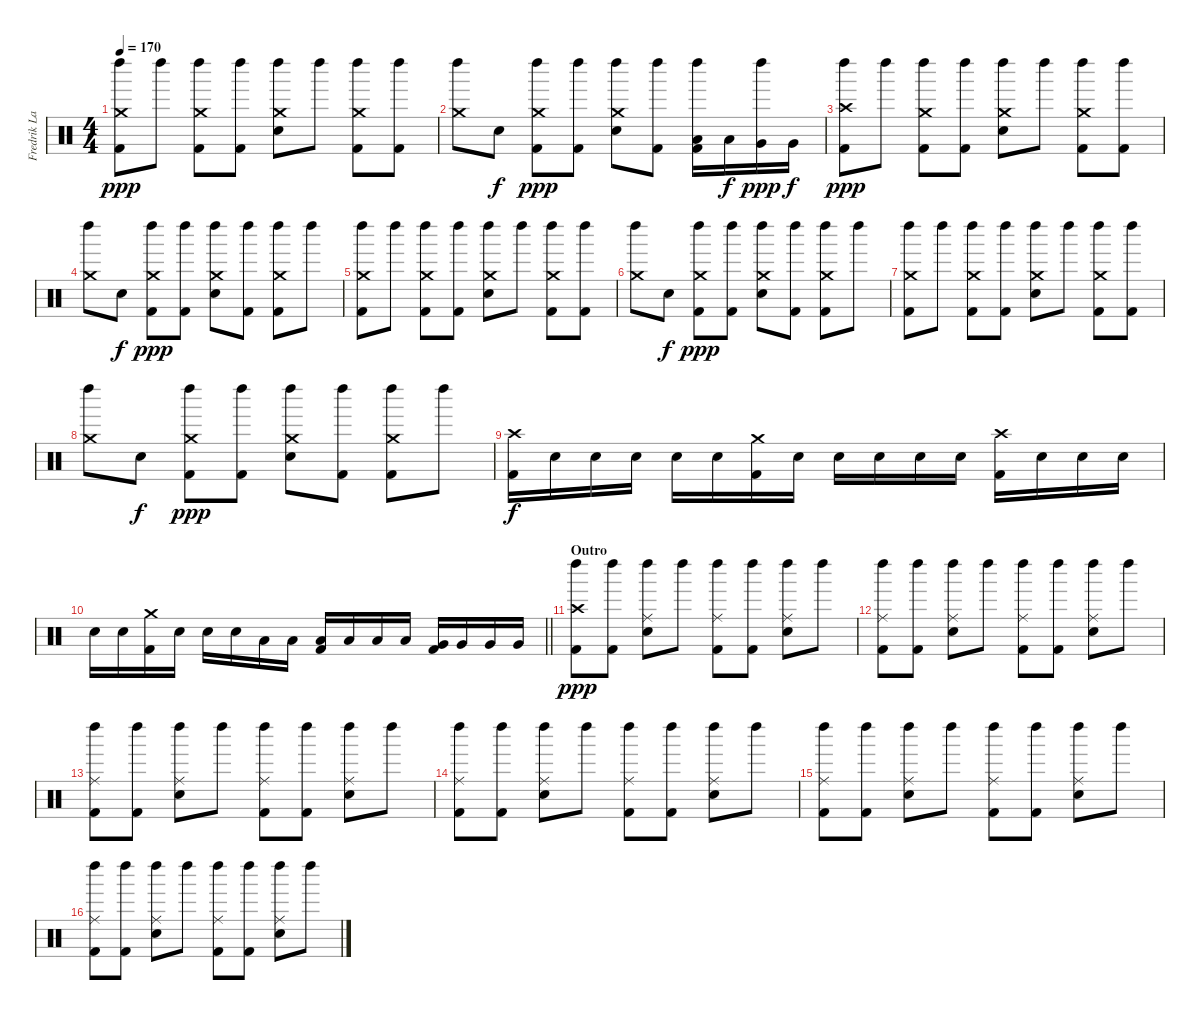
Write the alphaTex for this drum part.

\track ("Fredrik Larzon - Percussion" "Fredrik La") {instrument percussion}
\staff {score}
\articulation defaults
\ts (4 4)
\tempo 170
\clef neutral
\ks c
("Crash medium (hit)" "Left Maraca (hit)" "Kick (hit) 2").8{dy ppp} "Left Maraca (hit)".8 ("Crash medium (hit)" "Left Maraca (hit)" "Kick (hit) 2").8 ("Left Maraca (hit)" "Kick (hit) 2").8 ("Crash medium (hit)" "Left Maraca (hit)" "Electric Snare (hit)").8 "Left Maraca (hit)".8 ("Crash medium (hit)" "Left Maraca (hit)" "Kick (hit) 2").8 ("Left Maraca (hit)" "Kick (hit) 2").8 |
("Crash medium (hit)" "Left Maraca (hit)").8 "Electric Snare (hit)".8{dy f} ("Crash medium (hit)" "Left Maraca (hit)" "Kick (hit) 2").8{dy ppp} ("Left Maraca (hit)" "Kick (hit) 2").8 ("Crash medium (hit)" "Left Maraca (hit)" "Electric Snare (hit)").8 ("Left Maraca (hit)" "Kick (hit) 2").8 ("Left Maraca (hit)" "Low Tom (hit)" "Kick (hit) 2").16 "Low Tom (hit)".16{dy f} ("Left Maraca (hit)" "Very Low Tom (hit)").16{dy ppp} "Very Low Tom (hit)".16{dy f} |
("Crash high (hit)" "Left Maraca (hit)" "Kick (hit) 2").8{dy ppp} "Left Maraca (hit)".8 ("Crash medium (hit)" "Left Maraca (hit)" "Kick (hit) 2").8 ("Left Maraca (hit)" "Kick (hit) 2").8 ("Crash medium (hit)" "Left Maraca (hit)" "Electric Snare (hit)").8 "Left Maraca (hit)".8 ("Crash medium (hit)" "Left Maraca (hit)" "Kick (hit) 2").8 ("Left Maraca (hit)" "Kick (hit) 2").8 |
("Crash medium (hit)" "Left Maraca (hit)").8 "Electric Snare (hit)".8{dy f} ("Crash medium (hit)" "Left Maraca (hit)" "Kick (hit) 2").8{dy ppp} ("Left Maraca (hit)" "Kick (hit) 2").8 ("Crash medium (hit)" "Left Maraca (hit)" "Electric Snare (hit)").8 ("Left Maraca (hit)" "Kick (hit) 2").8 ("Crash medium (hit)" "Left Maraca (hit)" "Kick (hit) 2").8 "Left Maraca (hit)".8 |
("Crash medium (hit)" "Left Maraca (hit)" "Kick (hit) 2").8 "Left Maraca (hit)".8 ("Crash medium (hit)" "Left Maraca (hit)" "Kick (hit) 2").8 ("Left Maraca (hit)" "Kick (hit) 2").8 ("Crash medium (hit)" "Left Maraca (hit)" "Electric Snare (hit)").8 "Left Maraca (hit)".8 ("Crash medium (hit)" "Left Maraca (hit)" "Kick (hit) 2").8 ("Left Maraca (hit)" "Kick (hit) 2").8 |
("Crash medium (hit)" "Left Maraca (hit)").8 "Electric Snare (hit)".8{dy f} ("Crash medium (hit)" "Left Maraca (hit)" "Kick (hit) 2").8{dy ppp} ("Left Maraca (hit)" "Kick (hit) 2").8 ("Crash medium (hit)" "Left Maraca (hit)" "Electric Snare (hit)").8 ("Left Maraca (hit)" "Kick (hit) 2").8 ("Crash medium (hit)" "Left Maraca (hit)" "Kick (hit) 2").8 "Left Maraca (hit)".8 |
("Crash medium (hit)" "Left Maraca (hit)" "Kick (hit) 2").8 "Left Maraca (hit)".8 ("Crash medium (hit)" "Left Maraca (hit)" "Kick (hit) 2").8 ("Left Maraca (hit)" "Kick (hit) 2").8 ("Crash medium (hit)" "Left Maraca (hit)" "Electric Snare (hit)").8 "Left Maraca (hit)".8 ("Crash medium (hit)" "Left Maraca (hit)" "Kick (hit) 2").8 ("Left Maraca (hit)" "Kick (hit) 2").8 |
("Crash medium (hit)" "Left Maraca (hit)").8 "Electric Snare (hit)".8{dy f} ("Crash medium (hit)" "Left Maraca (hit)" "Kick (hit) 2").8{dy ppp} ("Left Maraca (hit)" "Kick (hit) 2").8 ("Crash medium (hit)" "Left Maraca (hit)" "Electric Snare (hit)").8 ("Left Maraca (hit)" "Kick (hit) 2").8 ("Crash medium (hit)" "Left Maraca (hit)" "Kick (hit) 2").8 "Left Maraca (hit)".8 |
("Crash high (hit)" "Kick (hit) 2").16{dy f} "Electric Snare (hit)".16 "Electric Snare (hit)".16 "Electric Snare (hit)".16 "Electric Snare (hit)".16 "Electric Snare (hit)".16 ("Crash medium (hit)" "Kick (hit) 2").16 "Electric Snare (hit)".16 "Electric Snare (hit)".16 "Electric Snare (hit)".16 "Electric Snare (hit)".16 "Electric Snare (hit)".16 ("Crash high (hit)" "Kick (hit) 2").16 "Electric Snare (hit)".16 "Electric Snare (hit)".16 "Electric Snare (hit)".16 |
\barLineRight lightlight "Electric Snare (hit)".16 "Electric Snare (hit)".16
("Crash medium (hit)" "Kick (hit) 2").16 "Electric Snare (hit)".16 "Electric Snare (hit)".16 "Electric Snare (hit)".16 "Low Tom (hit)".16 "Low Tom (hit)".16 ("Low Tom (hit)" "Kick (hit) 2").16 "Low Tom (hit)".16 "Low Tom (hit)".16 "Low Tom (hit)".16 ("Very Low Tom (hit)" "Kick (hit) 2").16 "Very Low Tom (hit)".16 "Very Low Tom (hit)".16 "Very Low Tom (hit)".16 |
\section ("" "Outro")
("Crash high (hit)" "Left Maraca (hit)" "Kick (hit) 2").8{dy ppp} ("Left Maraca (hit)" "Kick (hit) 2").8 ("Ride (middle)" "Left Maraca (hit)" "Electric Snare (hit)").8 "Left Maraca (hit)".8 ("Ride (middle)" "Left Maraca (hit)" "Kick (hit) 2").8 ("Left Maraca (hit)" "Kick (hit) 2").8 ("Ride (middle)" "Left Maraca (hit)" "Electric Snare (hit)").8 "Left Maraca (hit)".8 |
("Ride (middle)" "Left Maraca (hit)" "Kick (hit) 2").8 ("Left Maraca (hit)" "Kick (hit) 2").8 ("Ride (middle)" "Left Maraca (hit)" "Electric Snare (hit)").8 "Left Maraca (hit)".8 ("Ride (middle)" "Left Maraca (hit)" "Kick (hit) 2").8 ("Left Maraca (hit)" "Kick (hit) 2").8 ("Ride (middle)" "Left Maraca (hit)" "Electric Snare (hit)").8 "Left Maraca (hit)".8 |
("Ride (middle)" "Left Maraca (hit)" "Kick (hit) 2").8 ("Left Maraca (hit)" "Kick (hit) 2").8 ("Ride (middle)" "Left Maraca (hit)" "Electric Snare (hit)").8 "Left Maraca (hit)".8 ("Ride (middle)" "Left Maraca (hit)" "Kick (hit) 2").8 ("Left Maraca (hit)" "Kick (hit) 2").8 ("Ride (middle)" "Left Maraca (hit)" "Electric Snare (hit)").8 "Left Maraca (hit)".8 |
("Ride (middle)" "Left Maraca (hit)" "Kick (hit) 2").8 ("Left Maraca (hit)" "Kick (hit) 2").8 ("Ride (middle)" "Left Maraca (hit)" "Electric Snare (hit)").8 "Left Maraca (hit)".8 ("Ride (middle)" "Left Maraca (hit)" "Kick (hit) 2").8 ("Left Maraca (hit)" "Kick (hit) 2").8 ("Ride (middle)" "Left Maraca (hit)" "Electric Snare (hit)").8 "Left Maraca (hit)".8 |
("Ride (middle)" "Left Maraca (hit)" "Kick (hit) 2").8 ("Left Maraca (hit)" "Kick (hit) 2").8 ("Ride (middle)" "Left Maraca (hit)" "Electric Snare (hit)").8 "Left Maraca (hit)".8 ("Ride (middle)" "Left Maraca (hit)" "Kick (hit) 2").8 ("Left Maraca (hit)" "Kick (hit) 2").8 ("Ride (middle)" "Left Maraca (hit)" "Electric Snare (hit)").8 "Left Maraca (hit)".8 |
("Ride (middle)" "Left Maraca (hit)" "Kick (hit) 2").8 ("Left Maraca (hit)" "Kick (hit) 2").8 ("Ride (middle)" "Left Maraca (hit)" "Electric Snare (hit)").8 "Left Maraca (hit)".8 ("Ride (middle)" "Left Maraca (hit)" "Kick (hit) 2").8 ("Left Maraca (hit)" "Kick (hit) 2").8 ("Ride (middle)" "Left Maraca (hit)" "Electric Snare (hit)").8 "Left Maraca (hit)".8
